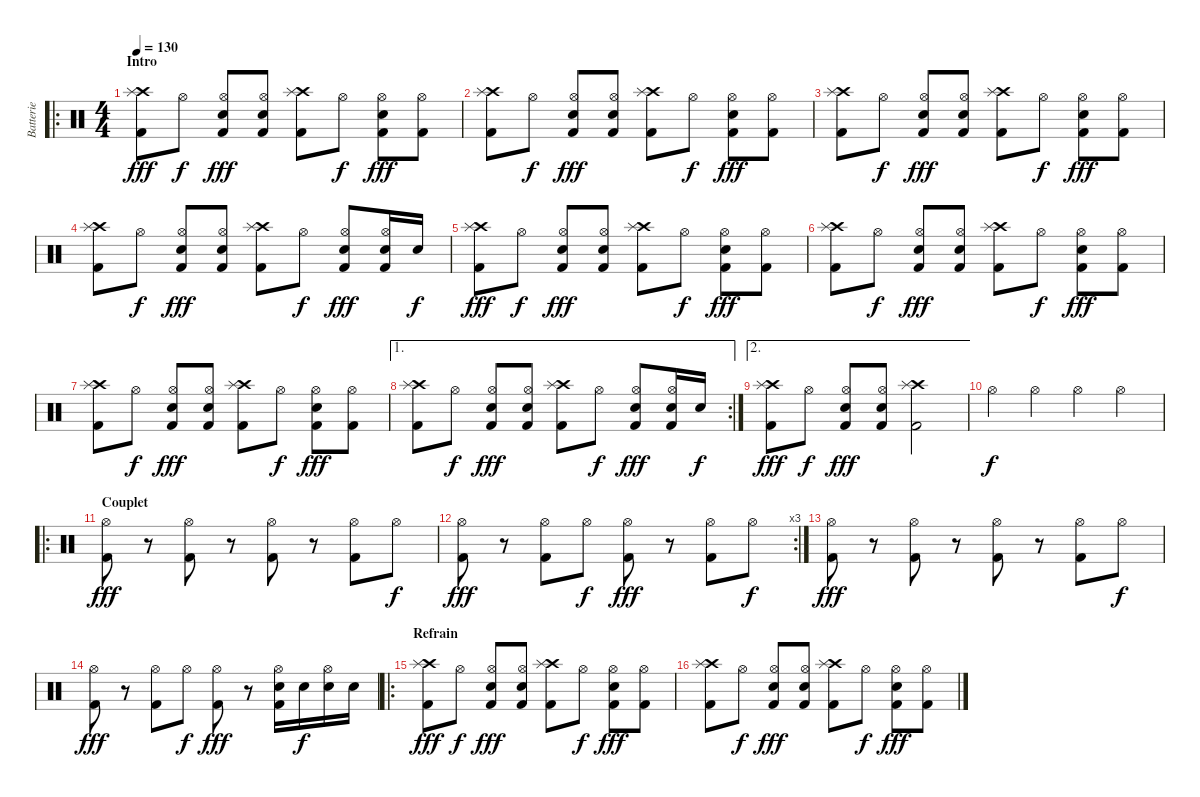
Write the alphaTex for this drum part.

\track ("Batterie" "Batterie") {instrument percussion}
\staff {score}
\articulation defaults
\ro
\ts (4 4)
\section ("" "Intro")
\tempo 130
\clef neutral
\ks c
("Crash high (hit)" "Kick (hit) 2" "Splash (hit)").8{dy fff} "Hi-Hat (open)".8{dy f} ("Hi-Hat (open)" "Kick (hit) 2" "Electric Snare (hit)").8{dy fff} ("Hi-Hat (open)" "Kick (hit) 2" "Electric Snare (hit)").8 ("Crash high (hit)" "Kick (hit) 2" "Splash (hit)").8 "Hi-Hat (open)".8{dy f} ("Hi-Hat (open)" "Kick (hit) 2" "Electric Snare (hit)").8{dy fff} ("Hi-Hat (open)" "Kick (hit) 2").8 |
("Crash high (hit)" "Kick (hit) 2" "Splash (hit)").8 "Hi-Hat (open)".8{dy f} ("Hi-Hat (open)" "Kick (hit) 2" "Electric Snare (hit)").8{dy fff} ("Hi-Hat (open)" "Kick (hit) 2" "Electric Snare (hit)").8 ("Crash high (hit)" "Kick (hit) 2" "Splash (hit)").8 "Hi-Hat (open)".8{dy f} ("Hi-Hat (open)" "Kick (hit) 2" "Electric Snare (hit)").8{dy fff} ("Hi-Hat (open)" "Kick (hit) 2").8 |
("Crash high (hit)" "Kick (hit) 2" "Splash (hit)").8 "Hi-Hat (open)".8{dy f} ("Hi-Hat (open)" "Kick (hit) 2" "Electric Snare (hit)").8{dy fff} ("Hi-Hat (open)" "Kick (hit) 2" "Electric Snare (hit)").8 ("Crash high (hit)" "Kick (hit) 2" "Splash (hit)").8 "Hi-Hat (open)".8{dy f} ("Hi-Hat (open)" "Kick (hit) 2" "Electric Snare (hit)").8{dy fff} ("Hi-Hat (open)" "Kick (hit) 2").8 |
("Crash high (hit)" "Kick (hit) 2" "Splash (hit)").8 "Hi-Hat (open)".8{dy f} ("Hi-Hat (open)" "Kick (hit) 2" "Electric Snare (hit)").8{dy fff} ("Hi-Hat (open)" "Kick (hit) 2" "Electric Snare (hit)").8 ("Crash high (hit)" "Kick (hit) 2" "Splash (hit)").8 "Hi-Hat (open)".8{dy f} ("Hi-Hat (open)" "Kick (hit) 2" "Electric Snare (hit)").8{dy fff} ("Hi-Hat (open)" "Kick (hit) 2" "Electric Snare (hit)").16 "Electric Snare (hit)".16{dy f} |
("Crash high (hit)" "Kick (hit) 2" "Splash (hit)").8{dy fff} "Hi-Hat (open)".8{dy f} ("Hi-Hat (open)" "Kick (hit) 2" "Electric Snare (hit)").8{dy fff} ("Hi-Hat (open)" "Kick (hit) 2" "Electric Snare (hit)").8 ("Crash high (hit)" "Kick (hit) 2" "Splash (hit)").8 "Hi-Hat (open)".8{dy f} ("Hi-Hat (open)" "Kick (hit) 2" "Electric Snare (hit)").8{dy fff} ("Hi-Hat (open)" "Kick (hit) 2").8 |
("Crash high (hit)" "Kick (hit) 2" "Splash (hit)").8 "Hi-Hat (open)".8{dy f} ("Hi-Hat (open)" "Kick (hit) 2" "Electric Snare (hit)").8{dy fff} ("Hi-Hat (open)" "Kick (hit) 2" "Electric Snare (hit)").8 ("Crash high (hit)" "Kick (hit) 2" "Splash (hit)").8 "Hi-Hat (open)".8{dy f} ("Hi-Hat (open)" "Kick (hit) 2" "Electric Snare (hit)").8{dy fff} ("Hi-Hat (open)" "Kick (hit) 2").8 |
("Crash high (hit)" "Kick (hit) 2" "Splash (hit)").8 "Hi-Hat (open)".8{dy f} ("Hi-Hat (open)" "Kick (hit) 2" "Electric Snare (hit)").8{dy fff} ("Hi-Hat (open)" "Kick (hit) 2" "Electric Snare (hit)").8 ("Crash high (hit)" "Kick (hit) 2" "Splash (hit)").8 "Hi-Hat (open)".8{dy f} ("Hi-Hat (open)" "Kick (hit) 2" "Electric Snare (hit)").8{dy fff} ("Hi-Hat (open)" "Kick (hit) 2").8 |
\ae 1
\rc 2
("Crash high (hit)" "Kick (hit) 2" "Splash (hit)").8 "Hi-Hat (open)".8{dy f} ("Hi-Hat (open)" "Kick (hit) 2" "Electric Snare (hit)").8{dy fff} ("Hi-Hat (open)" "Kick (hit) 2" "Electric Snare (hit)").8 ("Crash high (hit)" "Kick (hit) 2" "Splash (hit)").8 "Hi-Hat (open)".8{dy f} ("Hi-Hat (open)" "Kick (hit) 2" "Electric Snare (hit)").8{dy fff} ("Hi-Hat (open)" "Kick (hit) 2" "Electric Snare (hit)").16 "Electric Snare (hit)".16{dy f} |
\ae 2
("Crash high (hit)" "Kick (hit) 2" "Splash (hit)").8{dy fff} "Hi-Hat (open)".8{dy f} ("Hi-Hat (open)" "Kick (hit) 2" "Electric Snare (hit)").8{dy fff} ("Hi-Hat (open)" "Kick (hit) 2" "Electric Snare (hit)").8 ("Crash high (hit)" "Kick (hit) 2" "Splash (hit)").2 |
"Hi-Hat (open)".4{dy f} "Hi-Hat (open)".4 "Hi-Hat (open)".4 "Hi-Hat (open)".4 |
\ro
\section ("" "Couplet")
("Hi-Hat (open)" "Kick (hit) 2").8{dy fff} r.8 ("Hi-Hat (open)" "Kick (hit) 2").8 r.8 ("Hi-Hat (open)" "Kick (hit) 2").8 r.8 ("Hi-Hat (open)" "Kick (hit) 2").8 "Hi-Hat (open)".8{dy f} |
\rc 3
("Hi-Hat (open)" "Kick (hit) 2").8{dy fff} r.8 ("Hi-Hat (open)" "Kick (hit) 2").8 "Hi-Hat (open)".8{dy f} ("Hi-Hat (open)" "Kick (hit) 2").8{dy fff} r.8 ("Hi-Hat (open)" "Kick (hit) 2").8 "Hi-Hat (open)".8{dy f} |
("Hi-Hat (open)" "Kick (hit) 2").8{dy fff} r.8 ("Hi-Hat (open)" "Kick (hit) 2").8 r.8 ("Hi-Hat (open)" "Kick (hit) 2").8 r.8 ("Hi-Hat (open)" "Kick (hit) 2").8 "Hi-Hat (open)".8{dy f} |
("Hi-Hat (open)" "Kick (hit) 2").8{dy fff} r.8 ("Hi-Hat (open)" "Kick (hit) 2").8 "Hi-Hat (open)".8{dy f} ("Hi-Hat (open)" "Kick (hit) 2").8{dy fff} r.8 ("Hi-Hat (open)" "Kick (hit) 2" "Electric Snare (hit)").16 "Electric Snare (hit)".16{dy f} ("Hi-Hat (open)" "Electric Snare (hit)").16 "Electric Snare (hit)".16 |
\ro
\section ("" "Refrain")
("Crash high (hit)" "Kick (hit) 2" "Splash (hit)").8{dy fff} "Hi-Hat (open)".8{dy f} ("Hi-Hat (open)" "Kick (hit) 2" "Electric Snare (hit)").8{dy fff} ("Hi-Hat (open)" "Kick (hit) 2" "Electric Snare (hit)").8 ("Crash high (hit)" "Kick (hit) 2" "Splash (hit)").8 "Hi-Hat (open)".8{dy f} ("Hi-Hat (open)" "Kick (hit) 2" "Electric Snare (hit)").8{dy fff} ("Hi-Hat (open)" "Kick (hit) 2").8 |
("Crash high (hit)" "Kick (hit) 2" "Splash (hit)").8 "Hi-Hat (open)".8{dy f} ("Hi-Hat (open)" "Kick (hit) 2" "Electric Snare (hit)").8{dy fff} ("Hi-Hat (open)" "Kick (hit) 2" "Electric Snare (hit)").8 ("Crash high (hit)" "Kick (hit) 2" "Splash (hit)").8 "Hi-Hat (open)".8{dy f} ("Hi-Hat (open)" "Kick (hit) 2" "Electric Snare (hit)").8{dy fff} ("Hi-Hat (open)" "Kick (hit) 2").8
